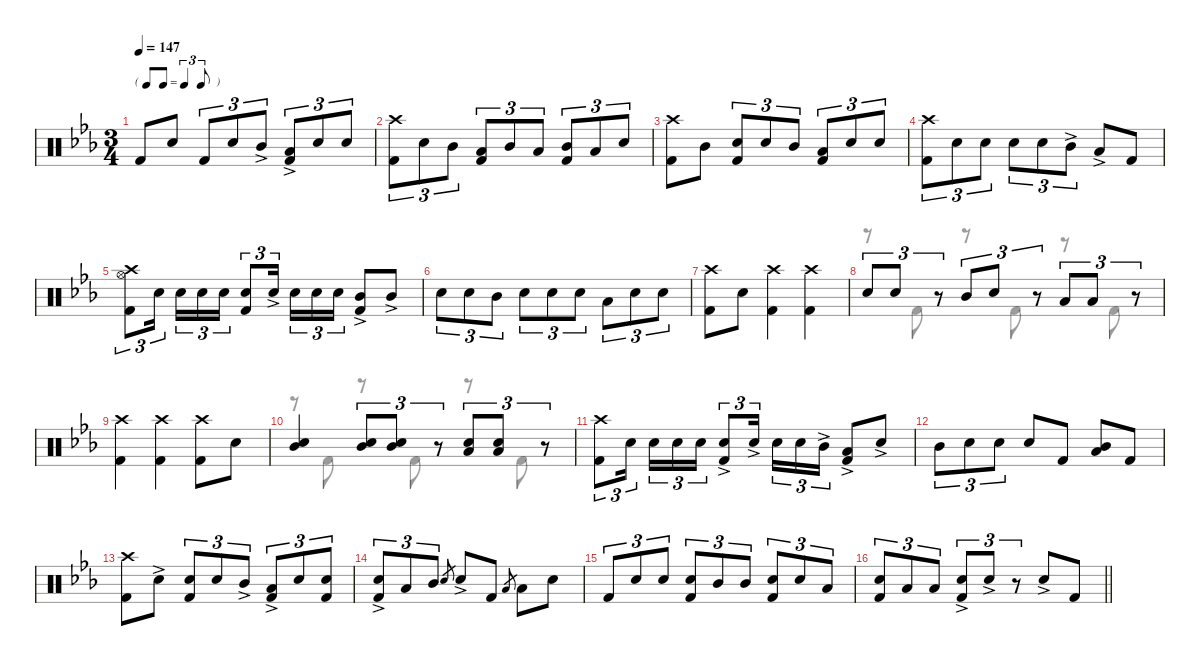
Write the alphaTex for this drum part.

\defaultSystemsLayout 4
\hideDynamics
\bracketExtendMode nobrackets
\singleTrackTrackNamePolicy hidden
\multiTrackTrackNamePolicy hidden
\firstSystemTrackNameMode fullname
\firstSystemTrackNameOrientation horizontal
\otherSystemsTrackNameOrientation horizontal
\track ("Percussion" "drm.") {defaultSystemsLayout 8 instrument percussion}
\staff {score}
\articulation defaults
\voice
\ts (3 4)
\tf triplet8th
\tempo 147
\clef neutral
\ks eb "Kick (hit) 2"{acc forcenatural}.8{dy f beam Up} "Snare (hit) 2"{acc forcenatural}.8{beam Up} "Kick (hit) 2"{acc forcenatural}.8{tu (3 2) beam Up} "Snare (hit) 2"{acc forcenatural}.8{tu (3 2) beam Up} "Mid Tom (hit)"{ac acc forcenatural}.8{tu (3 2) beam Up}
("Low Tom (hit)"{ac acc forcenatural} "Kick (hit) 2"{acc forcenatural}).8{tu (3 2) beam Up} "Snare (hit) 2"{acc forcenatural}.8{tu (3 2) beam Up} "Snare (hit) 2"{acc forcenatural}.8{tu (3 2) beam Up} |
("Crash high (hit)"{acc forcenatural} "Kick (hit) 2"{acc forcenatural}).8{tu (3 2) beam Down} "Snare (hit) 2"{acc forcenatural}.8{tu (3 2) beam Down} "Mid Tom (hit)"{acc forcenatural}.8{tu (3 2) beam Down} ("Low Floor Tom (hit)"{acc forcenatural} "Kick (hit) 2"{acc forcenatural}).8{tu (3 2) beam Up} "Mid Tom (hit)"{acc forcenatural}.8{tu (3 2) beam Up} "Low Floor Tom (hit)"{acc forcenatural}.8{tu (3 2) beam Up} ("Mid Tom (hit)"{acc forcenatural} "Kick (hit) 2"{acc forcenatural}).8{tu (3 2) beam Up} "Low Floor Tom (hit)"{acc forcenatural}.8{tu (3 2) beam Up} "Snare (hit) 2"{acc forcenatural}.8{tu (3 2) beam Up} |
("Crash high (hit)"{acc forcenatural} "Kick (hit) 2"{acc forcenatural}).8{beam Down} "Mid Tom (hit)"{acc forcenatural}.8{beam Down} ("Snare (hit) 2"{acc forcenatural} "Kick (hit) 2"{acc forcenatural}).8{tu (3 2) beam Up} "Snare (hit) 2"{acc forcenatural}.8{tu (3 2) beam Up} "Mid Tom (hit)"{acc forcenatural}.8{tu (3 2) beam Up} ("Low Floor Tom (hit)"{acc forcenatural} "Kick (hit) 2"{acc forcenatural}).8{tu (3 2) beam Up} "Snare (hit) 2"{acc forcenatural}.8{tu (3 2) beam Up} "Snare (hit) 2"{acc forcenatural}.8{tu (3 2) beam Up} |
("Crash high (hit)"{acc forcenatural} "Kick (hit) 2"{acc forcenatural}).8{tu (3 2) beam Down} "Snare (hit) 2"{acc forcenatural}.8{tu (3 2) beam Down} "Snare (hit) 2"{acc forcenatural}.8{tu (3 2) beam Down} "Snare (hit) 2"{acc forcenatural}.8{tu (3 2) beam Down} "Snare (hit) 2"{acc forcenatural}.8{tu (3 2) beam Down} "Mid Tom (hit)"{ac acc forcenatural}.8{tu (3 2) beam Down} "Low Tom (hit)"{ac acc forcenatural}.8{beam Up} "Kick (hit) 2"{acc forcenatural}.8{beam Up} |
("Crash high (hit)"{acc forcenatural} "Hi-Hat (open)"{acc forcenatural} "Kick (hit) 2"{acc forcenatural}).8{tu (3 2) beam Down} "Snare (hit) 2"{acc forcenatural}.16{tu (3 2) beam Down} "Snare (hit) 2"{acc forcenatural}.16{tu (3 2) beam Down} "Snare (hit) 2"{acc forcenatural}.16{tu (3 2) beam Down} "Snare (hit) 2"{acc forcenatural}.16{tu (3 2) beam Down} ("Snare (hit) 2"{acc forcenatural} "Kick (hit) 2"{acc forcenatural}).8{tu (3 2) beam Up} "Snare (hit) 2"{ac acc forcenatural}.16{tu (3 2) beam Up} "Snare (hit) 2"{acc forcenatural}.16{tu (3 2) beam Down} "Snare (hit) 2"{acc forcenatural}.16{tu (3 2) beam Down} "Snare (hit) 2"{acc forcenatural}.16{tu (3 2) beam Down} ("Mid Tom (hit)"{ac acc forcenatural} "Kick (hit) 2"{acc forcenatural}).8{beam Up} "Mid Tom (hit)"{ac acc forcenatural}.8{beam Up} |
"Snare (hit) 2"{acc forcenatural}.8{tu (3 2) beam Down} "Snare (hit) 2"{acc forcenatural}.8{tu (3 2) beam Down} "Mid Tom (hit)"{acc forcenatural}.8{tu (3 2) beam Down} "Snare (hit) 2"{acc forcenatural}.8{tu (3 2) beam Down} "Snare (hit) 2"{acc forcenatural}.8{tu (3 2) beam Down} "Snare (hit) 2"{acc forcenatural}.8{tu (3 2) beam Down} "Low Tom (hit)"{acc forcenatural}.8{tu (3 2) beam Down} "Snare (hit) 2"{acc forcenatural}.8{tu (3 2) beam Down} "Snare (hit) 2"{acc forcenatural}.8{tu (3 2) beam Down} |
("Crash high (hit)"{acc forcenatural} "Kick (hit) 2"{acc forcenatural}).8{beam Down} "Snare (hit) 2"{acc forcenatural}.8{beam Down} ("Crash high (hit)"{acc forcenatural} "Kick (hit) 2"{acc forcenatural}).4{beam Down} ("Crash high (hit)"{acc forcenatural} "Kick (hit) 2"{acc forcenatural}).4{beam Down} |
"Snare (hit) 2"{acc forcenatural}.8{tu (3 2) beam Up} "Snare (hit) 2"{acc forcenatural}.8{tu (3 2) beam Up} r.8{tu (3 2) beam Up} "Mid Tom (hit)"{acc forcenatural}.8{tu (3 2) beam Up} "Snare (hit) 2"{acc forcenatural}.8{tu (3 2) beam Up} r.8{tu (3 2) beam Up} "Low Floor Tom (hit)"{acc forcenatural}.8{tu (3 2) beam Up} "Low Tom (hit)"{acc forcenatural}.8{tu (3 2) beam Up} r.8{tu (3 2) beam Up} |
("Crash high (hit)"{acc forcenatural} "Kick (hit) 2"{acc forcenatural}).4{beam Down} ("Crash high (hit)"{acc forcenatural} "Kick (hit) 2"{acc forcenatural}).4{beam Down} ("Crash high (hit)"{acc forcenatural} "Kick (hit) 2"{acc forcenatural}).8{beam Down} "Snare (hit) 2"{acc forcenatural}.8{beam Down} |
("Mid Tom (hit)"{acc forcenatural} "Snare (hit) 2"{acc forcenatural}).4{beam Up} ("Mid Tom (hit)"{acc forcenatural} "Snare (hit) 2"{acc forcenatural}).8{tu (3 2) beam Up} ("Mid Tom (hit)"{acc forcenatural} "Snare (hit) 2"{acc forcenatural}).8{tu (3 2) beam Up} r.8{tu (3 2) beam Up} ("Snare (hit) 2"{acc forcenatural} "Low Floor Tom (hit)"{acc forcenatural}).8{tu (3 2) beam Up} ("Snare (hit) 2"{acc forcenatural} "Low Floor Tom (hit)"{acc forcenatural}).8{tu (3 2) beam Up} r.8{tu (3 2) beam Up} |
("Crash high (hit)"{acc forcenatural} "Kick (hit) 2"{acc forcenatural}).8{tu (3 2) beam Down} "Snare (hit) 2"{acc forcenatural}.16{tu (3 2) beam Down} "Snare (hit) 2"{acc forcenatural}.16{tu (3 2) beam Down} "Snare (hit) 2"{acc forcenatural}.16{tu (3 2) beam Down} "Snare (hit) 2"{acc forcenatural}.16{tu (3 2) beam Down} ("Snare (hit) 2"{ac acc forcenatural} "Kick (hit) 2"{ac acc forcenatural}).8{tu (3 2) beam Up} "Snare (hit) 2"{ac acc forcenatural}.16{tu (3 2) beam Up} "Snare (hit) 2"{acc forcenatural}.16{tu (3 2) beam Down} "Snare (hit) 2"{acc forcenatural}.16{tu (3 2) beam Down} "Mid Tom (hit)"{ac acc forcenatural}.16{tu (3 2) beam Down} ("Low Tom (hit)"{ac acc forcenatural} "Kick (hit) 2"{acc forcenatural}).8{beam Up} "Snare (hit) 2"{ac acc forcenatural}.8{beam Up} |
"Mid Tom (hit)"{acc forcenatural}.8{tu (3 2) beam Down} "Snare (hit) 2"{acc forcenatural}.8{tu (3 2) beam Down} "Snare (hit) 2"{acc forcenatural}.8{tu (3 2) beam Down} "Snare (hit) 2"{acc forcenatural}.8{beam Up} "Kick (hit) 2"{acc forcenatural}.8{beam Up} ("Mid Tom (hit)"{acc forcenatural} "Low Floor Tom (hit)"{acc forcenatural}).8{beam Up} "Kick (hit) 2"{acc forcenatural}.8{beam Up} |
("Crash high (hit)"{acc forcenatural} "Kick (hit) 2"{acc forcenatural}).8{beam Down} "Snare (hit) 2"{ac acc forcenatural}.8{beam Down} ("Snare (hit) 2"{acc forcenatural} "Kick (hit) 2"{acc forcenatural}).8{tu (3 2) beam Up} "Snare (hit) 2"{acc forcenatural}.8{tu (3 2) beam Up} "Mid Tom (hit)"{ac acc forcenatural}.8{tu (3 2) beam Up} ("Low Tom (hit)"{ac acc forcenatural} "Kick (hit) 2"{acc forcenatural}).8{tu (3 2) beam Up} "Snare (hit) 2"{acc forcenatural}.8{tu (3 2) beam Up} ("Snare (hit) 2"{acc forcenatural} "Kick (hit) 2"{acc forcenatural}).8{tu (3 2) beam Up} |
("Snare (hit) 2"{ac acc forcenatural} "Kick (hit) 2"{acc forcenatural}).8{tu (3 2) beam Up} "Low Tom (hit)"{acc forcenatural}.8{tu (3 2) beam Up} "Mid Tom (hit)"{acc forcenatural}.8{tu (3 2) beam Up} "Snare (hit) 2"{acc forcenatural}.8{gr dy mf beam Up} "Snare (hit) 2"{ac acc forcenatural}.8{dy f beam Up} "Kick (hit) 2"{acc forcenatural}.8{beam Up} "Low Floor Tom (hit)"{acc forcenatural}.8{gr dy mf beam Up} "Low Floor Tom (hit)"{acc forcenatural}.8{dy f beam Down} "Snare (hit) 2"{acc forcenatural}.8{beam Down} |
"Kick (hit) 2"{acc forcenatural}.8{tu (3 2) beam Up} "Snare (hit) 2"{acc forcenatural}.8{tu (3 2) beam Up} "Snare (hit) 2"{acc forcenatural}.8{tu (3 2) beam Up} ("Snare (hit) 2"{acc forcenatural} "Kick (hit) 2"{acc forcenatural}).8{tu (3 2) beam Up} "Mid Tom (hit)"{acc forcenatural}.8{tu (3 2) beam Up} "Mid Tom (hit)"{acc forcenatural}.8{tu (3 2) beam Up} ("Snare (hit) 2"{acc forcenatural} "Kick (hit) 2"{acc forcenatural}).8{tu (3 2) beam Up} "Snare (hit) 2"{acc forcenatural}.8{tu (3 2) beam Up} "Low Tom (hit)"{acc forcenatural}.8{tu (3 2) beam Up} |
\barLineRight lightlight
("Snare (hit) 2"{acc forcenatural} "Kick (hit) 2"{acc forcenatural}).8{tu (3 2) beam Up} "Low Floor Tom (hit)"{acc forcenatural}.8{tu (3 2) beam Up} "Low Floor Tom (hit)"{acc forcenatural}.8{tu (3 2) beam Up} ("Snare (hit) 2"{ac acc forcenatural} "Kick (hit) 2"{acc forcenatural}).8{tu (3 2) beam Up} "Snare (hit) 2"{ac acc forcenatural}.8{tu (3 2) beam Up} r.8{tu (3 2) beam Up} "Snare (hit) 2"{ac acc forcenatural}.8{beam Up} "Kick (hit) 2"{acc forcenatural}.8{beam Up}
\voice
\clef neutral
\ottava regular
\simile none
\ks eb
|
|
|
|
|
|
|
r.8{beam Down} "Kick (hit) 2"{acc forcenatural}.8{beam Down} r.8{beam Down} "Kick (hit) 2"{acc forcenatural}.8{beam Down} r.8{beam Down} "Kick (hit) 2"{acc forcenatural}.8{beam Down} |
|
r.8{beam Down} "Kick (hit) 2"{acc forcenatural}.8{beam Down} r.8{beam Down} "Kick (hit) 2"{acc forcenatural}.8{beam Down} r.8{beam Down} "Kick (hit) 2"{acc forcenatural}.8{beam Down} |
|
|
|
|
|
\barLineRight lightlight
